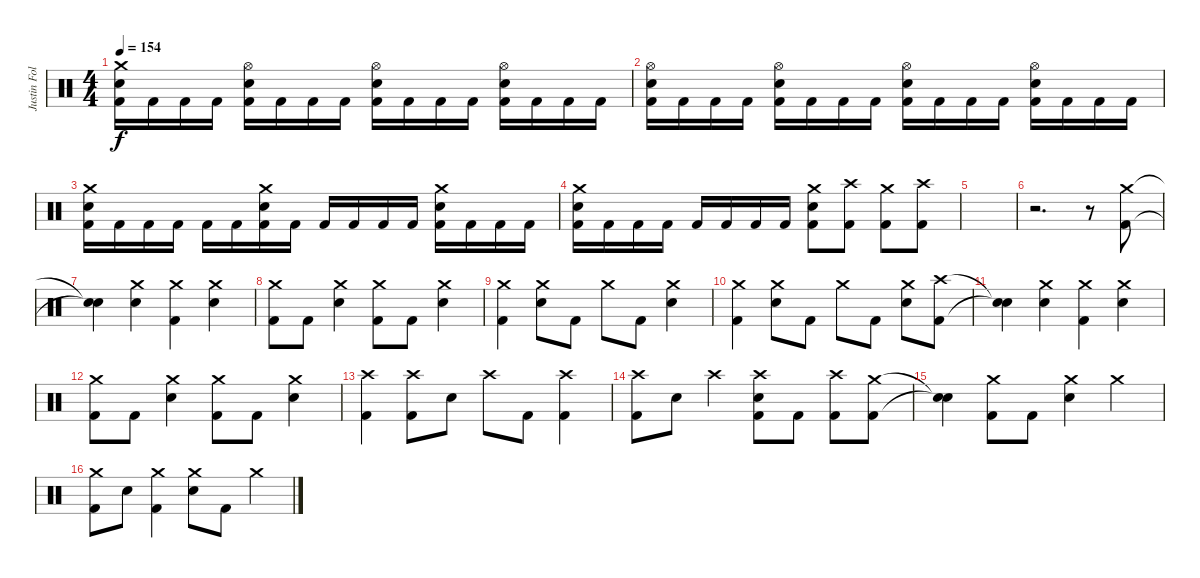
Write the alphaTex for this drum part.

\track ("Justin Foley" "Justin Fol") {instrument percussion}
\staff {score}
\articulation defaults
\ts (4 4)
\tempo 154
\clef neutral
\ks c
("Crash medium (hit)" "Electric Snare (hit)" "Kick (hit) 2").16{dy f} "Kick (hit) 2".16 "Kick (hit) 2".16 "Kick (hit) 2".16 ("Hi-Hat (open)" "Electric Snare (hit)" "Kick (hit) 2").16 "Kick (hit) 2".16 "Kick (hit) 2".16 "Kick (hit) 2".16 ("Hi-Hat (open)" "Electric Snare (hit)" "Kick (hit) 2").16 "Kick (hit) 2".16 "Kick (hit) 2".16 "Kick (hit) 2".16 ("Hi-Hat (open)" "Electric Snare (hit)" "Kick (hit) 2").16 "Kick (hit) 2".16 "Kick (hit) 2".16 "Kick (hit) 2".16 |
("Hi-Hat (open)" "Electric Snare (hit)" "Kick (hit) 2").16 "Kick (hit) 2".16 "Kick (hit) 2".16 "Kick (hit) 2".16 ("Hi-Hat (open)" "Electric Snare (hit)" "Kick (hit) 2").16 "Kick (hit) 2".16 "Kick (hit) 2".16 "Kick (hit) 2".16 ("Hi-Hat (open)" "Electric Snare (hit)" "Kick (hit) 2").16 "Kick (hit) 2".16 "Kick (hit) 2".16 "Kick (hit) 2".16 ("Hi-Hat (open)" "Electric Snare (hit)" "Kick (hit) 2").16 "Kick (hit) 2".16 "Kick (hit) 2".16 "Kick (hit) 2".16 |
("Crash medium (hit)" "Electric Snare (hit)" "Kick (hit) 2").16 "Kick (hit) 2".16 "Kick (hit) 2".16 "Kick (hit) 2".16 "Kick (hit) 2".16 "Kick (hit) 2".16 ("Crash medium (hit)" "Electric Snare (hit)" "Kick (hit) 2").16 "Kick (hit) 2".16 "Kick (hit) 2".16 "Kick (hit) 2".16 "Kick (hit) 2".16 "Kick (hit) 2".16 ("Crash medium (hit)" "Electric Snare (hit)" "Kick (hit) 2").16 "Kick (hit) 2".16 "Kick (hit) 2".16 "Kick (hit) 2".16 |
("Crash medium (hit)" "Electric Snare (hit)" "Kick (hit) 2").16 "Kick (hit) 2".16 "Kick (hit) 2".16 "Kick (hit) 2".16 "Kick (hit) 2".16 "Kick (hit) 2".16 "Kick (hit) 2".16 "Kick (hit) 2".16 ("Crash medium (hit)" "Electric Snare (hit)" "Kick (hit) 2").8 ("Crash high (hit)" "Kick (hit) 2").8 ("Crash medium (hit)" "Kick (hit) 2").8 ("Crash high (hit)" "Kick (hit) 2").8 |
|
r.2{d} r.8 ("Crash medium (hit)" "Kick (hit) 2").8 |
("Snare (hit)"{t} "Snare (hit)"{t}).4 ("Crash medium (hit)" "Electric Snare (hit)").4 ("Crash medium (hit)" "Kick (hit) 2").4 ("Crash medium (hit)" "Electric Snare (hit)").4 |
("Crash medium (hit)" "Kick (hit) 2").8 "Kick (hit) 2".8 ("Crash medium (hit)" "Electric Snare (hit)").4 ("Crash medium (hit)" "Kick (hit) 2").8 "Kick (hit) 2".8 ("Crash medium (hit)" "Electric Snare (hit)").4 |
("Crash medium (hit)" "Kick (hit) 2").4 ("Crash medium (hit)" "Electric Snare (hit)").8 "Kick (hit) 2".8 "Crash medium (hit)".8 "Kick (hit) 2".8 ("Crash medium (hit)" "Electric Snare (hit)").4 |
("Crash medium (hit)" "Kick (hit) 2").4 ("Crash medium (hit)" "Electric Snare (hit)").8 "Kick (hit) 2".8 "Crash medium (hit)".8 "Kick (hit) 2".8 ("Crash medium (hit)" "Electric Snare (hit)").8 ("Crash high (hit)" "Kick (hit) 2").8 |
("Snare (hit)"{t} "Snare (hit)"{t}).4 ("Crash medium (hit)" "Electric Snare (hit)").4 ("Crash medium (hit)" "Kick (hit) 2").4 ("Crash medium (hit)" "Electric Snare (hit)").4 |
("Crash medium (hit)" "Kick (hit) 2").8 "Kick (hit) 2".8 ("Crash medium (hit)" "Electric Snare (hit)").4 ("Crash medium (hit)" "Kick (hit) 2").8 "Kick (hit) 2".8 ("Crash medium (hit)" "Electric Snare (hit)").4 |
("Crash high (hit)" "Kick (hit) 2").4 ("Crash high (hit)" "Kick (hit) 2").8 "Electric Snare (hit)".8 "Crash high (hit)".8 "Kick (hit) 2".8 ("Crash high (hit)" "Kick (hit) 2").4 |
("Crash high (hit)" "Kick (hit) 2").8 "Electric Snare (hit)".8 "Crash high (hit)".4 ("Crash high (hit)" "Electric Snare (hit)" "Kick (hit) 2").8 "Kick (hit) 2".8 ("Crash high (hit)" "Kick (hit) 2").8 ("Crash medium (hit)" "Kick (hit) 2").8 |
("Snare (hit)"{t} "Snare (hit)"{t}).4 ("Crash medium (hit)" "Kick (hit) 2").8 "Kick (hit) 2".8 ("Crash medium (hit)" "Electric Snare (hit)").4 "Crash medium (hit)".4 |
("Crash medium (hit)" "Kick (hit) 2").8 "Electric Snare (hit)".8 ("Crash medium (hit)" "Kick (hit) 2").4 ("Crash medium (hit)" "Electric Snare (hit)").8 "Kick (hit) 2".8 "Crash medium (hit)".4
